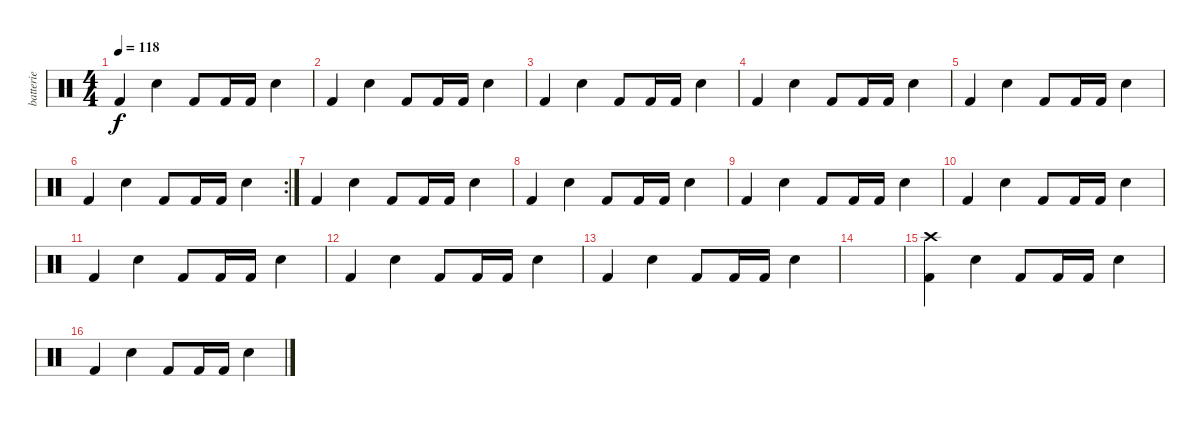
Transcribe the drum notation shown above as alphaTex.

\track ("batterie" "batterie") {instrument percussion}
\staff {score}
\articulation defaults
\ts (4 4)
\tempo 118
\clef neutral
\ks c "Kick (hit) 2".4{dy f} "Electric Snare (hit)".4 "Kick (hit) 2".8 "Kick (hit) 2".16 "Kick (hit) 2".16 "Electric Snare (hit)".4
|
"Kick (hit) 2".4 "Electric Snare (hit)".4 "Kick (hit) 2".8 "Kick (hit) 2".16 "Kick (hit) 2".16 "Electric Snare (hit)".4 |
"Kick (hit) 2".4 "Electric Snare (hit)".4 "Kick (hit) 2".8 "Kick (hit) 2".16 "Kick (hit) 2".16 "Electric Snare (hit)".4 |
"Kick (hit) 2".4 "Electric Snare (hit)".4 "Kick (hit) 2".8 "Kick (hit) 2".16 "Kick (hit) 2".16 "Electric Snare (hit)".4 |
"Kick (hit) 2".4 "Electric Snare (hit)".4 "Kick (hit) 2".8 "Kick (hit) 2".16 "Kick (hit) 2".16 "Electric Snare (hit)".4 |
\rc 2 "Kick (hit) 2".4 "Electric Snare (hit)".4 "Kick (hit) 2".8 "Kick (hit) 2".16 "Kick (hit) 2".16 "Electric Snare (hit)".4
|
"Kick (hit) 2".4 "Electric Snare (hit)".4 "Kick (hit) 2".8 "Kick (hit) 2".16 "Kick (hit) 2".16 "Electric Snare (hit)".4 |
"Kick (hit) 2".4 "Electric Snare (hit)".4 "Kick (hit) 2".8 "Kick (hit) 2".16 "Kick (hit) 2".16 "Electric Snare (hit)".4 |
"Kick (hit) 2".4 "Electric Snare (hit)".4 "Kick (hit) 2".8 "Kick (hit) 2".16 "Kick (hit) 2".16 "Electric Snare (hit)".4 |
"Kick (hit) 2".4 "Electric Snare (hit)".4 "Kick (hit) 2".8 "Kick (hit) 2".16 "Kick (hit) 2".16 "Electric Snare (hit)".4 |
"Kick (hit) 2".4 "Electric Snare (hit)".4 "Kick (hit) 2".8 "Kick (hit) 2".16 "Kick (hit) 2".16 "Electric Snare (hit)".4 |
"Kick (hit) 2".4 "Electric Snare (hit)".4 "Kick (hit) 2".8 "Kick (hit) 2".16 "Kick (hit) 2".16 "Electric Snare (hit)".4 |
"Kick (hit) 2".4 "Electric Snare (hit)".4 "Kick (hit) 2".8 "Kick (hit) 2".16 "Kick (hit) 2".16 "Electric Snare (hit)".4 |
|
("Crash high (hit)" "Kick (hit) 2").4 "Electric Snare (hit)".4 "Kick (hit) 2".8 "Kick (hit) 2".16 "Kick (hit) 2".16 "Electric Snare (hit)".4 |
"Kick (hit) 2".4 "Electric Snare (hit)".4 "Kick (hit) 2".8 "Kick (hit) 2".16 "Kick (hit) 2".16 "Electric Snare (hit)".4
